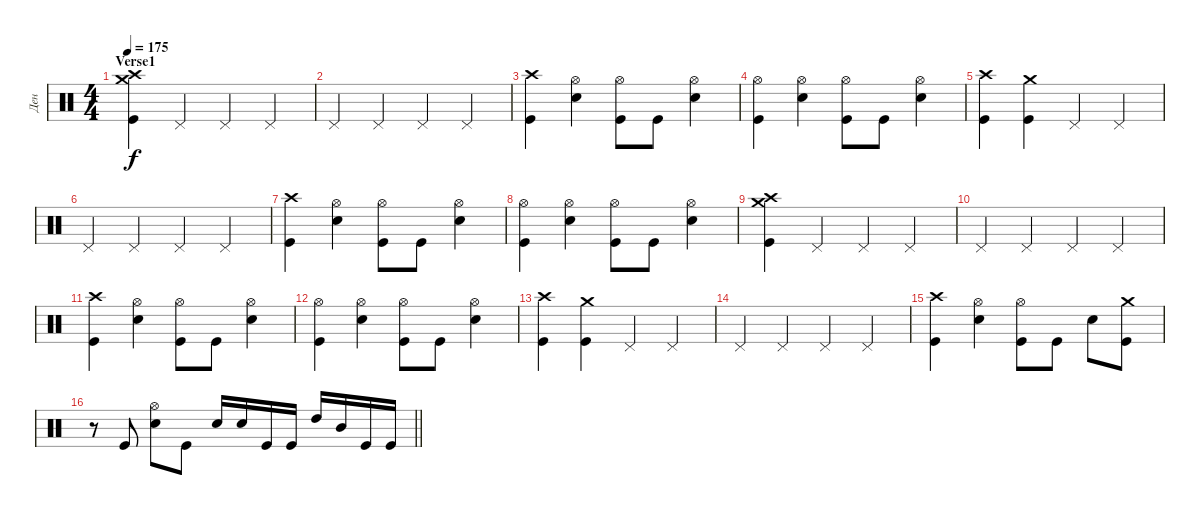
\track ("Ден" "Ден") {instrument percussion}
\staff {score}
\articulation defaults
\ts (4 4)
\section ("" "Verse1")
\tempo 175
\clef neutral
\ks c
("Crash high (hit)" "Crash medium (hit)" "Kick (hit)").4{dy f} "Pedal Hi-Hat (hit)".4 "Pedal Hi-Hat (hit)".4 "Pedal Hi-Hat (hit)".4 |
"Pedal Hi-Hat (hit)".4 "Pedal Hi-Hat (hit)".4 "Pedal Hi-Hat (hit)".4 "Pedal Hi-Hat (hit)".4 |
\ks aminor
("Crash high (hit)" "Kick (hit)").4 ("Hi-Hat (open)" "Snare (hit) 2").4 ("Hi-Hat (open)" "Kick (hit)").8 "Kick (hit)".8 ("Hi-Hat (open)" "Snare (hit) 2").4 |
("Hi-Hat (open)" "Kick (hit)").4 ("Hi-Hat (open)" "Snare (hit) 2").4 ("Hi-Hat (open)" "Kick (hit)").8 "Kick (hit)".8 ("Hi-Hat (open)" "Snare (hit) 2").4 |
\ks c
("Crash high (hit)" "Kick (hit)").4 ("Crash medium (hit)" "Kick (hit)").4 "Pedal Hi-Hat (hit)".4 "Pedal Hi-Hat (hit)".4 |
"Pedal Hi-Hat (hit)".4 "Pedal Hi-Hat (hit)".4 "Pedal Hi-Hat (hit)".4 "Pedal Hi-Hat (hit)".4 |
("Crash high (hit)" "Kick (hit)").4 ("Hi-Hat (open)" "Snare (hit) 2").4 ("Hi-Hat (open)" "Kick (hit)").8 "Kick (hit)".8 ("Hi-Hat (open)" "Snare (hit) 2").4 |
("Hi-Hat (open)" "Kick (hit)").4 ("Hi-Hat (open)" "Snare (hit) 2").4 ("Hi-Hat (open)" "Kick (hit)").8 "Kick (hit)".8 ("Hi-Hat (open)" "Snare (hit) 2").4 |
("Crash high (hit)" "Crash medium (hit)" "Kick (hit)").4 "Pedal Hi-Hat (hit)".4 "Pedal Hi-Hat (hit)".4 "Pedal Hi-Hat (hit)".4 |
"Pedal Hi-Hat (hit)".4 "Pedal Hi-Hat (hit)".4 "Pedal Hi-Hat (hit)".4 "Pedal Hi-Hat (hit)".4 |
("Crash high (hit)" "Kick (hit)").4 ("Hi-Hat (open)" "Snare (hit) 2").4 ("Hi-Hat (open)" "Kick (hit)").8 "Kick (hit)".8 ("Hi-Hat (open)" "Snare (hit) 2").4 |
("Hi-Hat (open)" "Kick (hit)").4 ("Hi-Hat (open)" "Snare (hit) 2").4 ("Hi-Hat (open)" "Kick (hit)").8 "Kick (hit)".8 ("Hi-Hat (open)" "Snare (hit) 2").4 |
("Crash high (hit)" "Kick (hit)").4 ("Crash medium (hit)" "Kick (hit)").4 "Pedal Hi-Hat (hit)".4 "Pedal Hi-Hat (hit)".4 |
"Pedal Hi-Hat (hit)".4 "Pedal Hi-Hat (hit)".4 "Pedal Hi-Hat (hit)".4 "Pedal Hi-Hat (hit)".4 |
("Crash high (hit)" "Kick (hit)").4 ("Hi-Hat (open)" "Snare (hit) 2").4 ("Hi-Hat (open)" "Kick (hit)").8 "Kick (hit)".8 "Snare (hit) 2".8 ("Crash medium (hit)" "Kick (hit)").8 |
\barLineRight lightlight
r.8 "Kick (hit)".8 ("Hi-Hat (open)" "Snare (hit) 2").8 "Kick (hit)".8 "Snare (hit) 2".16 "Snare (hit) 2".16 "Kick (hit)".16 "Kick (hit)".16 "High Tom (hit)".16 "Mid Tom (hit)".16 "Kick (hit)".16 "Kick (hit)".16
